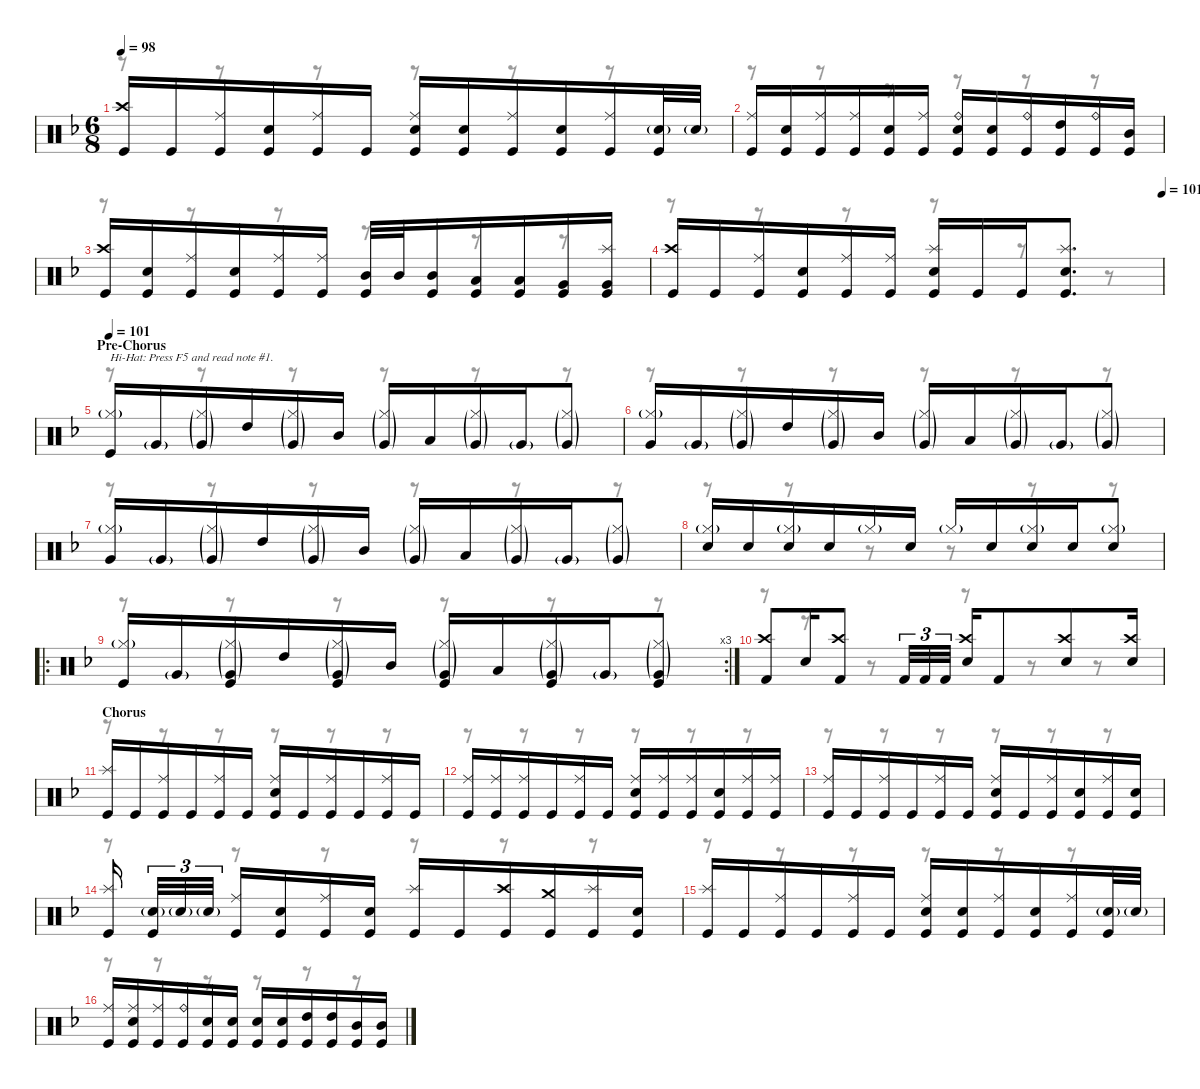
\defaultSystemsLayout 4
\hideDynamics
\bracketExtendMode nobrackets
\singleTrackTrackNamePolicy hidden
\multiTrackTrackNamePolicy hidden
\otherSystemsTrackNameOrientation horizontal
\track ("M. Lopez" "drm.") {instrument percussion}
\staff {score}
\articulation defaults
\voice
\ts (6 8)
\tempo 98
\clef neutral
\ks dminor
("Crash high (hit)"{acc forcenatural} "Kick (hit)"{acc forcenatural}).16{dy f beam Up} "Kick (hit)"{acc forcenatural}.16{beam Up} ("Ride (middle)"{acc forcenatural} "Kick (hit)"{acc forcenatural}).16{beam Up} ("Snare (hit) 2"{acc forcenatural} "Kick (hit)"{acc forcenatural}).16{beam Up} ("Ride (middle)"{acc forcenatural} "Kick (hit)"{acc forcenatural}).16{beam Up} "Kick (hit)"{acc forcenatural}.16{beam Up} ("Ride (middle)"{acc forcenatural} "Snare (hit) 2"{acc forcenatural} "Kick (hit)"{acc forcenatural}).16{beam Up} ("Snare (hit) 2"{acc forcenatural} "Kick (hit)"{acc forcenatural}).16{beam Up} ("Ride (middle)"{acc forcenatural} "Kick (hit)"{acc forcenatural}).16{beam Up} ("Snare (hit) 2"{acc forcenatural} "Kick (hit)"{acc forcenatural}).16{beam Up} ("Ride (middle)"{acc forcenatural} "Kick (hit)"{acc forcenatural}).16{beam Up} ("Snare (hit) 2"{g acc forcenatural} "Kick (hit)"{acc forcenatural}).32{beam Up} "Snare (hit) 2"{g acc forcenatural}.32{dy mf beam Up} |
("Ride (middle)"{acc forcenatural} "Kick (hit)"{acc forcenatural}).16{dy f beam Up} ("Snare (hit) 2"{acc forcenatural} "Kick (hit)"{acc forcenatural}).16{beam Up} ("Ride (middle)"{acc forcenatural} "Kick (hit)"{acc forcenatural}).16{beam Up} ("Ride (middle)"{acc forcenatural} "Kick (hit)"{acc forcenatural}).16{beam Up} ("Snare (hit) 2"{acc forcenatural} "Kick (hit)"{acc forcenatural}).16{beam Up} ("Ride (middle)"{acc forcenatural} "Kick (hit)"{acc forcenatural}).16{beam Up} ("Ride (bell)"{acc forcenatural} "Snare (hit) 2"{acc forcenatural} "Kick (hit)"{acc forcenatural}).16{beam Up} ("Snare (hit) 2"{acc forcenatural} "Kick (hit)"{acc forcenatural}).16{beam Up} ("Ride (bell)"{acc forcenatural} "Kick (hit)"{acc forcenatural}).16{beam Up} ("High Tom (hit)"{acc forcenatural} "Kick (hit)"{acc forcenatural}).16{beam Up} ("Ride (bell)"{acc forcenatural} "Kick (hit)"{acc forcenatural}).16{beam Up} ("Mid Tom (hit)"{acc forcenatural} "Kick (hit)"{acc forcenatural}).16{beam Up} |
("Crash high (hit)"{acc forcenatural} "Kick (hit)"{acc forcenatural}).16{beam Up} ("Snare (hit) 2"{acc forcenatural} "Kick (hit)"{acc forcenatural}).16{dy mf beam Up} ("Ride (middle)"{acc forcenatural} "Kick (hit)"{acc forcenatural}).16{dy f beam Up} ("Snare (hit) 2"{acc forcenatural} "Kick (hit)"{acc forcenatural}).16{beam Up} ("Ride (middle)"{acc forcenatural} "Kick (hit)"{acc forcenatural}).16{beam Up} ("Ride (middle)"{acc forcenatural} "Kick (hit)"{acc forcenatural}).16{beam Up} ("Mid Tom (hit)"{acc forcenatural} "Kick (hit)"{acc forcenatural}).32{dy mf beam Up} "Mid Tom (hit)"{acc forcenatural}.32{beam Up} ("Mid Tom (hit)"{acc forcenatural} "Kick (hit)"{acc forcenatural}).16{beam Up} ("Low Tom (hit)"{acc forcenatural} "Kick (hit)"{acc forcenatural}).16{beam Up} ("Low Tom (hit)"{acc forcenatural} "Kick (hit)"{acc forcenatural}).16{beam Up} ("Very Low Tom (hit)"{acc forcenatural} "Kick (hit)"{acc forcenatural}).16{beam Up} ("Splash (hit)"{acc forcenatural} "Very Low Tom (hit)"{acc forcenatural} "Kick (hit)"{acc forcenatural}).16{beam Up} |
\tempo (101 1)
("Crash high (hit)"{acc forcenatural} "Kick (hit)"{acc forcenatural}).16{dy f beam Up} "Kick (hit)"{acc forcenatural}.16{beam Up} ("Ride (middle)"{acc forcenatural} "Kick (hit)"{acc forcenatural}).16{beam Up} ("Snare (hit) 2"{acc forcenatural} "Kick (hit)"{acc forcenatural}).16{dy mf beam Up} ("Ride (middle)"{acc forcenatural} "Kick (hit)"{acc forcenatural}).16{dy f beam Up} ("Ride (middle)"{acc forcenatural} "Kick (hit)"{acc forcenatural}).16{dy mf beam Up} ("Splash (hit)"{acc forcenatural} "Snare (hit) 2"{acc forcenatural} "Kick (hit)"{acc forcenatural}).16{dy f beam Up} "Kick (hit)"{acc forcenatural}.16{beam Up} "Kick (hit)"{acc forcenatural}.16{beam Up} ("Splash (hit)"{acc forcenatural} "Snare (hit) 2"{acc forcenatural} "Kick (hit)"{acc forcenatural}).8{d beam Up} |
\section ("" "Pre-Chorus")
\tempo 101
("Hi-Hat (closed)"{g acc forcenatural} "Kick (hit)"{acc forcenatural}).16{txt "Hi-Hat: Press F5 and read note #1." dy mf beam Up} "Very Low Tom (hit)"{g acc forcenatural}.16{beam Up} ("Hi-Hat (closed)"{g acc forcenatural} "Very Low Tom (hit)"{g acc forcenatural}).16{beam Up} "High Tom (hit)"{acc forcenatural}.16{beam Up} ("Hi-Hat (closed)"{g acc forcenatural} "Very Low Tom (hit)"{g acc forcenatural}).16{beam Up} "Mid Tom (hit)"{acc forcenatural}.16{beam Up} ("Hi-Hat (closed)"{g acc forcenatural} "Very Low Tom (hit)"{g acc forcenatural}).16{beam Up} "Low Tom (hit)"{acc forcenatural}.16{beam Up} ("Hi-Hat (closed)"{g acc forcenatural} "Very Low Tom (hit)"{g acc forcenatural}).16{beam Up} "Very Low Tom (hit)"{g acc forcenatural}.16{dy mp beam Up} ("Hi-Hat (closed)"{g acc forcenatural} "Very Low Tom (hit)"{g acc forcenatural}).8{dy mf beam Up} |
("Hi-Hat (closed)"{g acc forcenatural} "Very Low Tom (hit)"{acc forcenatural}).16{dy mp beam Up} "Very Low Tom (hit)"{g acc forcenatural}.16{dy mf beam Up} ("Hi-Hat (closed)"{g acc forcenatural} "Very Low Tom (hit)"{g acc forcenatural}).16{beam Up} "High Tom (hit)"{acc forcenatural}.16{dy mp beam Up} ("Hi-Hat (closed)"{g acc forcenatural} "Very Low Tom (hit)"{g acc forcenatural}).16{dy mf beam Up} "Mid Tom (hit)"{acc forcenatural}.16{dy mp beam Up} ("Hi-Hat (closed)"{g acc forcenatural} "Very Low Tom (hit)"{g acc forcenatural}).16{dy mf beam Up} "Low Tom (hit)"{acc forcenatural}.16{dy mp beam Up} ("Hi-Hat (closed)"{g acc forcenatural} "Very Low Tom (hit)"{g acc forcenatural}).16{dy mf beam Up} "Very Low Tom (hit)"{g acc forcenatural}.16{beam Up} ("Hi-Hat (closed)"{g acc forcenatural} "Very Low Tom (hit)"{g acc forcenatural}).8{beam Up} |
("Hi-Hat (closed)"{g acc forcenatural} "Very Low Tom (hit)"{acc forcenatural}).16{dy mp beam Up} "Very Low Tom (hit)"{g acc forcenatural}.16{dy mf beam Up} ("Hi-Hat (closed)"{g acc forcenatural} "Very Low Tom (hit)"{g acc forcenatural}).16{beam Up} "High Tom (hit)"{acc forcenatural}.16{beam Up} ("Hi-Hat (closed)"{g acc forcenatural} "Very Low Tom (hit)"{g acc forcenatural}).16{beam Up} "Mid Tom (hit)"{acc forcenatural}.16{beam Up} ("Hi-Hat (closed)"{g acc forcenatural} "Very Low Tom (hit)"{g acc forcenatural}).16{beam Up} "Low Tom (hit)"{acc forcenatural}.16{beam Up} ("Hi-Hat (closed)"{g acc forcenatural} "Very Low Tom (hit)"{g acc forcenatural}).16{beam Up} "Very Low Tom (hit)"{g acc forcenatural}.16{beam Up} ("Hi-Hat (closed)"{g acc forcenatural} "Very Low Tom (hit)"{g acc forcenatural}).8{beam Up} |
("Hi-Hat (closed)"{g acc forcenatural} "Snare (hit) 2"{acc forcenatural}).16{dy f beam Up} "Snare (hit) 2"{acc forcenatural}.16{beam Up} ("Hi-Hat (closed)"{g acc forcenatural} "Snare (hit) 2"{acc forcenatural}).16{beam Up} "Snare (hit) 2"{acc forcenatural}.16{beam Up} "Hi-Hat (closed)"{g acc forcenatural}.16{dy mf beam Up} "Snare (hit) 2"{acc forcenatural}.16{dy f beam Up} "Hi-Hat (closed)"{g acc forcenatural}.16{dy mf beam Up} "Snare (hit) 2"{acc forcenatural}.16{dy f beam Up} ("Hi-Hat (closed)"{g acc forcenatural} "Snare (hit) 2"{acc forcenatural}).16{beam Up} "Snare (hit) 2"{acc forcenatural}.16{beam Up} ("Hi-Hat (closed)"{g acc forcenatural} "Snare (hit) 2"{acc forcenatural}).8{beam Up} |
\ro
\rc 3
("Hi-Hat (closed)"{g acc forcenatural} "Kick (hit)"{acc forcenatural}).16{dy mf beam Up} "Very Low Tom (hit)"{g acc forcenatural}.16{beam Up} ("Hi-Hat (closed)"{g acc forcenatural} "Very Low Tom (hit)"{g acc forcenatural} "Kick (hit)"{acc forcenatural}).16{dy f beam Up} "High Tom (hit)"{acc forcenatural}.16{dy mf beam Up} ("Hi-Hat (closed)"{g acc forcenatural} "Very Low Tom (hit)"{g acc forcenatural} "Kick (hit)"{acc forcenatural}).16{dy f beam Up} "Mid Tom (hit)"{acc forcenatural}.16{dy mf beam Up} ("Hi-Hat (closed)"{g acc forcenatural} "Very Low Tom (hit)"{g acc forcenatural} "Kick (hit)"{acc forcenatural}).16{dy f beam Up} "Low Tom (hit)"{acc forcenatural}.16{dy mf beam Up} ("Hi-Hat (closed)"{g acc forcenatural} "Very Low Tom (hit)"{g acc forcenatural} "Kick (hit)"{acc forcenatural}).16{dy f beam Up} "Very Low Tom (hit)"{g acc forcenatural}.16{dy mp beam Up} ("Hi-Hat (closed)"{g acc forcenatural} "Very Low Tom (hit)"{g acc forcenatural} "Kick (hit)"{acc forcenatural}).8{dy f beam Up} |
("Crash high (hit)"{acc forcenatural} "Kick (hit) 2"{acc forcenatural}).8{beam Up} "Snare (hit) 2"{acc forcenatural}.16{beam Up} ("Crash high (hit)"{acc forcenatural} "Kick (hit) 2"{acc forcenatural}).8{beam Up} "Kick (hit) 2"{acc forcenatural}.32{tu (3 2) beam Up} "Kick (hit) 2"{acc forcenatural}.32{tu (3 2) beam Up} "Kick (hit) 2"{acc forcenatural}.32{tu (3 2) beam Up} ("Crash high (hit)"{acc forcenatural} "Snare (hit) 2"{acc forcenatural}).16{beam Up} "Kick (hit) 2"{acc forcenatural}.8{beam Up} ("Crash high (hit)"{acc forcenatural} "Snare (hit) 2"{acc forcenatural}).8{beam Up} ("Crash high (hit)"{acc forcenatural} "Snare (hit) 2"{acc forcenatural}).16{beam Up} |
\section ("" "Chorus")
("Splash (hit)"{acc forcenatural} "Kick (hit)"{acc forcenatural}).16{beam Up} "Kick (hit)"{acc forcenatural}.16{beam Up} ("Ride (middle)"{acc forcenatural} "Kick (hit)"{acc forcenatural}).16{beam Up} "Kick (hit)"{acc forcenatural}.16{beam Up} ("Ride (middle)"{acc forcenatural} "Kick (hit)"{acc forcenatural}).16{beam Up} "Kick (hit)"{acc forcenatural}.16{beam Up} ("Ride (middle)"{acc forcenatural} "Snare (hit) 2"{acc forcenatural} "Kick (hit)"{acc forcenatural}).16{beam Up} "Kick (hit)"{acc forcenatural}.16{beam Up} ("Ride (middle)"{acc forcenatural} "Kick (hit)"{acc forcenatural}).16{beam Up} "Kick (hit)"{acc forcenatural}.16{beam Up} ("Ride (middle)"{acc forcenatural} "Kick (hit)"{acc forcenatural}).16{beam Up} "Kick (hit)"{acc forcenatural}.16{beam Up} |
("Ride (middle)"{acc forcenatural} "Kick (hit)"{acc forcenatural}).16{beam Up} ("Ride (middle)"{acc forcenatural} "Kick (hit)"{acc forcenatural}).16{beam Up} ("Ride (middle)"{acc forcenatural} "Kick (hit)"{acc forcenatural}).16{beam Up} "Kick (hit)"{acc forcenatural}.16{beam Up} ("Ride (middle)"{acc forcenatural} "Kick (hit)"{acc forcenatural}).16{beam Up} "Kick (hit)"{acc forcenatural}.16{beam Up} ("Ride (middle)"{acc forcenatural} "Snare (hit) 2"{acc forcenatural} "Kick (hit)"{acc forcenatural}).16{beam Up} ("Ride (middle)"{acc forcenatural} "Kick (hit)"{acc forcenatural}).16{beam Up} ("Ride (middle)"{acc forcenatural} "Kick (hit)"{acc forcenatural}).16{beam Up} ("Snare (hit) 2"{acc forcenatural} "Kick (hit)"{acc forcenatural}).16{beam Up} ("Ride (middle)"{acc forcenatural} "Kick (hit)"{acc forcenatural}).16{beam Up} ("Ride (middle)"{acc forcenatural} "Kick (hit)"{acc forcenatural}).16{beam Up} |
("Ride (middle)"{acc forcenatural} "Kick (hit)"{acc forcenatural}).16{beam Up} "Kick (hit)"{acc forcenatural}.16{beam Up} ("Ride (middle)"{acc forcenatural} "Kick (hit)"{acc forcenatural}).16{beam Up} "Kick (hit)"{acc forcenatural}.16{beam Up} ("Ride (middle)"{acc forcenatural} "Kick (hit)"{acc forcenatural}).16{beam Up} "Kick (hit)"{acc forcenatural}.16{beam Up} ("Ride (middle)"{acc forcenatural} "Snare (hit) 2"{acc forcenatural} "Kick (hit)"{acc forcenatural}).16{beam Up} "Kick (hit)"{acc forcenatural}.16{beam Up} ("Ride (middle)"{acc forcenatural} "Kick (hit)"{acc forcenatural}).16{beam Up} ("Snare (hit) 2"{acc forcenatural} "Kick (hit)"{acc forcenatural}).16{beam Up} ("Ride (middle)"{acc forcenatural} "Kick (hit)"{acc forcenatural}).16{beam Up} ("Snare (hit) 2"{acc forcenatural} "Kick (hit)"{acc forcenatural}).16{beam Up} |
("Splash (hit)"{acc forcenatural} "Kick (hit)"{acc forcenatural}).16{beam Up} ("Snare (hit) 2"{g acc forcenatural} "Kick (hit)"{acc forcenatural}).32{tu (3 2) beam Up} "Snare (hit) 2"{g acc forcenatural}.32{tu (3 2) beam Up} "Snare (hit) 2"{g acc forcenatural}.32{tu (3 2) beam Up} ("Ride (middle)"{acc forcenatural} "Kick (hit)"{acc forcenatural}).16{beam Up} ("Snare (hit) 2"{acc forcenatural} "Kick (hit)"{acc forcenatural}).16{beam Up} ("Ride (middle)"{acc forcenatural} "Kick (hit)"{acc forcenatural}).16{beam Up} ("Snare (hit) 2"{acc forcenatural} "Kick (hit)"{acc forcenatural}).16{beam Up} ("Splash (hit)"{acc forcenatural} "Kick (hit)"{acc forcenatural}).16{beam Up} "Kick (hit)"{acc forcenatural}.16{beam Up} ("Crash high (hit)"{acc forcenatural} "Kick (hit)"{acc forcenatural}).16{beam Up} ("Crash medium (hit)"{acc forcenatural} "Kick (hit)"{acc forcenatural}).16{dy mf beam Up} ("Splash (hit)"{acc forcenatural} "Kick (hit)"{acc forcenatural}).16{dy f beam Up} ("Snare (hit) 2"{acc forcenatural} "Kick (hit)"{acc forcenatural}).16{beam Up} |
("Splash (hit)"{acc forcenatural} "Kick (hit)"{acc forcenatural}).16{beam Up} "Kick (hit)"{acc forcenatural}.16{beam Up} ("Ride (middle)"{acc forcenatural} "Kick (hit)"{acc forcenatural}).16{beam Up} "Kick (hit)"{acc forcenatural}.16{beam Up} ("Ride (middle)"{acc forcenatural} "Kick (hit)"{acc forcenatural}).16{beam Up} "Kick (hit)"{acc forcenatural}.16{beam Up} ("Ride (middle)"{acc forcenatural} "Snare (hit) 2"{acc forcenatural} "Kick (hit)"{acc forcenatural}).16{beam Up} ("Snare (hit) 2"{acc forcenatural} "Kick (hit)"{acc forcenatural}).16{beam Up} ("Ride (middle)"{acc forcenatural} "Kick (hit)"{acc forcenatural}).16{beam Up} ("Snare (hit) 2"{acc forcenatural} "Kick (hit)"{acc forcenatural}).16{beam Up} ("Ride (middle)"{acc forcenatural} "Kick (hit)"{acc forcenatural}).16{beam Up} ("Snare (hit) 2"{g acc forcenatural} "Kick (hit)"{acc forcenatural}).32{beam Up} "Snare (hit) 2"{g acc forcenatural}.32{dy mf beam Up} |
("Ride (middle)"{acc forcenatural} "Kick (hit)"{acc forcenatural}).16{dy f beam Up} ("Ride (middle)"{acc forcenatural} "Snare (hit) 2"{acc forcenatural} "Kick (hit)"{acc forcenatural}).16{beam Up} ("Ride (middle)"{acc forcenatural} "Kick (hit)"{acc forcenatural}).16{beam Up} ("Ride (bell)"{acc forcenatural} "Kick (hit)"{acc forcenatural}).16{beam Up} ("Snare (hit) 2"{acc forcenatural} "Kick (hit)"{acc forcenatural}).16{beam Up} ("Snare (hit) 2"{acc forcenatural} "Kick (hit)"{acc forcenatural}).16{beam Up} ("Snare (hit) 2"{acc forcenatural} "Kick (hit)"{acc forcenatural}).16{beam Up} ("Snare (hit) 2"{acc forcenatural} "Kick (hit)"{acc forcenatural}).16{beam Up} ("High Tom (hit)"{acc forcenatural} "Kick (hit)"{acc forcenatural}).16{beam Up} ("High Tom (hit)"{acc forcenatural} "Kick (hit)"{acc forcenatural}).16{beam Up} ("Mid Tom (hit)"{acc forcenatural} "Kick (hit)"{acc forcenatural}).16{beam Up} ("Mid Tom (hit)"{acc forcenatural} "Kick (hit)"{acc forcenatural}).16{beam Up}
\voice
\clef neutral
\ottava regular
\simile none
\ks dminor
r.8{dy mf beam Down} r.8{beam Down} r.8{beam Down} r.8{beam Down} r.8{beam Down} r.8{beam Down} |
r.8{beam Down} r.8{beam Down} r.8{beam Down} r.8{beam Down} r.8{beam Down} r.8{beam Down} |
r.8{beam Down} r.8{beam Down} r.8{beam Down} r.8{beam Down} r.8{beam Down} r.8{beam Down} |
r.8{beam Down} r.8{beam Down} r.8{beam Down} r.8{beam Down} r.8{beam Down} r.8{beam Down} |
r.8{beam Down} r.8{beam Down} r.8{beam Down} r.8{beam Down} r.8{beam Down} r.8{beam Down} |
r.8{beam Down} r.8{beam Down} r.8{beam Down} r.8{beam Down} r.8{beam Down} r.8{beam Down} |
r.8{beam Down} r.8{beam Down} r.8{beam Down} r.8{beam Down} r.8{beam Down} r.8{beam Down} |
r.8{beam Down} r.8{beam Down} r.8{beam Down} r.8{beam Down} r.8{beam Down} r.8{beam Down} |
r.8{beam Down} r.8{beam Down} r.8{beam Down} r.8{beam Down} r.8{beam Down} r.8{beam Down} |
r.8{beam Down} r.8{beam Down} r.8{beam Down} r.8{beam Down} r.8{beam Down} r.8{beam Down} |
r.8{beam Down} r.8{beam Down} r.8{beam Down} r.8{beam Down} r.8{beam Down} r.8{beam Down} |
r.8{beam Down} r.8{beam Down} r.8{beam Down} r.8{beam Down} r.8{beam Down} r.8{beam Down} |
r.8{beam Down} r.8{beam Down} r.8{beam Down} r.8{beam Down} r.8{beam Down} r.8{beam Down} |
r.8{beam Down} r.8{beam Down} r.8{beam Down} r.8{beam Down} r.8{beam Down} r.8{beam Down} |
r.8{beam Down} r.8{beam Down} r.8{beam Down} r.8{beam Down} r.8{beam Down} r.8{beam Down} |
r.8{beam Down} r.8{beam Down} r.8{beam Down} r.8{beam Down} r.8{beam Down} r.8{beam Down}
